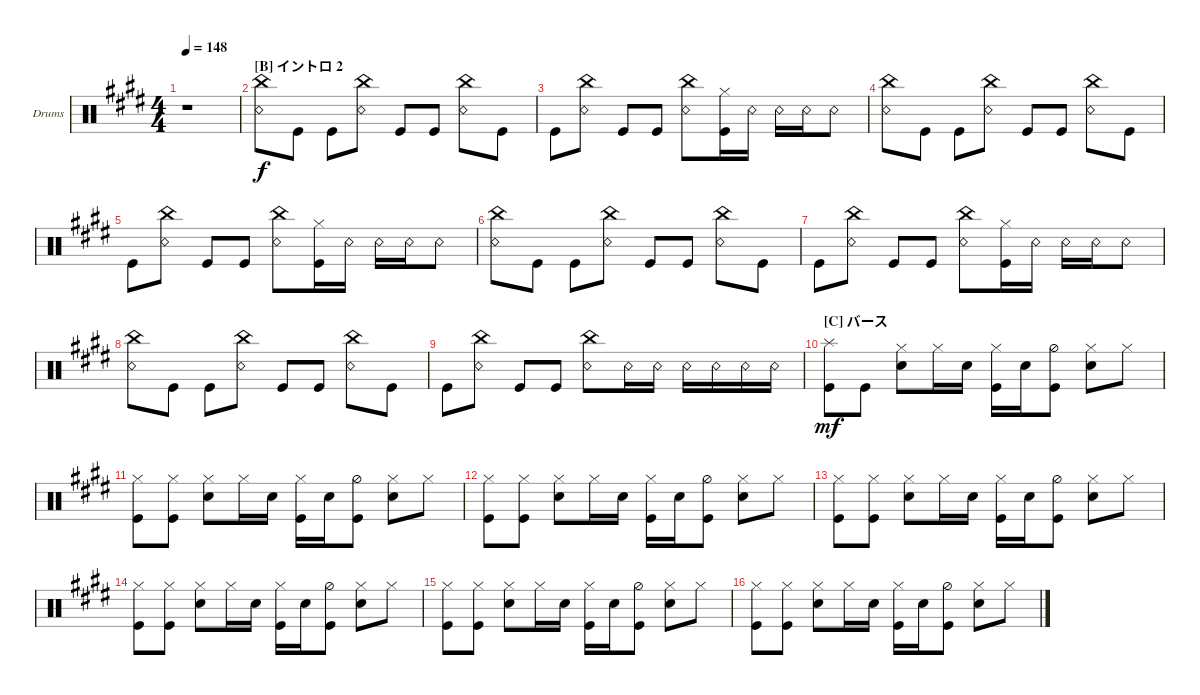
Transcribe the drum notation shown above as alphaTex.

\bracketExtendMode groupsimilarinstruments
\firstSystemTrackNameOrientation horizontal
\otherSystemsTrackNameOrientation horizontal
\track ("Ichigo" "Drums") {instrument percussion}
\staff {score}
\articulation defaults
\ts (4 4)
\tempo 148
\clef neutral
\ks e
r.1{dy f} |
\section ("B" "イントロ 2")
("China (hit)" "Snare (rim shot)").8 "Kick (hit)".8 "Kick (hit)".8 ("Snare (rim shot)" "China (hit)").8 "Kick (hit)".8 "Kick (hit)".8 ("Snare (rim shot)" "China (hit)").8 "Kick (hit)".8 |
"Kick (hit)".8 ("Snare (rim shot)" "China (hit)").8 "Kick (hit)".8 "Kick (hit)".8 ("Snare (rim shot)" "China (hit)").8 ("Kick (hit)" "Hi-Hat (closed)").16 "Snare (rim shot)".16 "Snare (rim shot)".16 "Snare (rim shot)".16 "Snare (rim shot)".8 |
("China (hit)" "Snare (rim shot)").8 "Kick (hit)".8 "Kick (hit)".8 ("Snare (rim shot)" "China (hit)").8 "Kick (hit)".8 "Kick (hit)".8 ("Snare (rim shot)" "China (hit)").8 "Kick (hit)".8 |
"Kick (hit)".8 ("Snare (rim shot)" "China (hit)").8 "Kick (hit)".8 "Kick (hit)".8 ("Snare (rim shot)" "China (hit)").8 ("Kick (hit)" "Hi-Hat (closed)").16 "Snare (rim shot)".16 "Snare (rim shot)".16 "Snare (rim shot)".16 "Snare (rim shot)".8 |
("China (hit)" "Snare (rim shot)").8 "Kick (hit)".8 "Kick (hit)".8 ("Snare (rim shot)" "China (hit)").8 "Kick (hit)".8 "Kick (hit)".8 ("Snare (rim shot)" "China (hit)").8 "Kick (hit)".8 |
"Kick (hit)".8 ("Snare (rim shot)" "China (hit)").8 "Kick (hit)".8 "Kick (hit)".8 ("Snare (rim shot)" "China (hit)").8 ("Kick (hit)" "Hi-Hat (closed)").16 "Snare (rim shot)".16 "Snare (rim shot)".16 "Snare (rim shot)".16 "Snare (rim shot)".8 |
("China (hit)" "Snare (rim shot)").8 "Kick (hit)".8 "Kick (hit)".8 ("Snare (rim shot)" "China (hit)").8 "Kick (hit)".8 "Kick (hit)".8 ("Snare (rim shot)" "China (hit)").8 "Kick (hit)".8 |
"Kick (hit)".8 ("Snare (rim shot)" "China (hit)").8 "Kick (hit)".8 "Kick (hit)".8 ("Snare (rim shot)" "China (hit)").8 "Snare (rim shot)".16 "Snare (rim shot)".16 "Snare (rim shot)".16 "Snare (rim shot)".16 "Snare (rim shot)".16 "Snare (rim shot)".16 |
\section ("C" "バース")
("Splash (hit)" "Kick (hit)").8{dy mf} "Kick (hit)".8 ("Snare (hit) 2" "Hi-Hat (closed)").8 "Hi-Hat (closed)".16 "Snare (hit) 2".16 ("Hi-Hat (closed)" "Kick (hit)").16 "Snare (hit) 2".16 ("Kick (hit)" "Hi-Hat (half)").8 ("Hi-Hat (closed)" "Snare (hit) 2").8 "Hi-Hat (closed)".8 |
("Kick (hit)" "Hi-Hat (closed)").8 ("Kick (hit)" "Hi-Hat (closed)").8 ("Snare (hit) 2" "Hi-Hat (closed)").8 "Hi-Hat (closed)".16 "Snare (hit) 2".16 ("Hi-Hat (closed)" "Kick (hit)").16 "Snare (hit) 2".16 ("Kick (hit)" "Hi-Hat (half)").8 ("Hi-Hat (closed)" "Snare (hit) 2").8 "Hi-Hat (closed)".8 |
("Kick (hit)" "Hi-Hat (closed)").8 ("Kick (hit)" "Hi-Hat (closed)").8 ("Snare (hit) 2" "Hi-Hat (closed)").8 "Hi-Hat (closed)".16 "Snare (hit) 2".16 ("Hi-Hat (closed)" "Kick (hit)").16 "Snare (hit) 2".16 ("Kick (hit)" "Hi-Hat (half)").8 ("Hi-Hat (closed)" "Snare (hit) 2").8 "Hi-Hat (closed)".8 |
("Kick (hit)" "Hi-Hat (closed)").8 ("Kick (hit)" "Hi-Hat (closed)").8 ("Snare (hit) 2" "Hi-Hat (closed)").8 "Hi-Hat (closed)".16 "Snare (hit) 2".16 ("Hi-Hat (closed)" "Kick (hit)").16 "Snare (hit) 2".16 ("Kick (hit)" "Hi-Hat (half)").8 ("Hi-Hat (closed)" "Snare (hit) 2").8 "Hi-Hat (closed)".8 |
("Kick (hit)" "Hi-Hat (closed)").8 ("Kick (hit)" "Hi-Hat (closed)").8 ("Snare (hit) 2" "Hi-Hat (closed)").8 "Hi-Hat (closed)".16 "Snare (hit) 2".16 ("Hi-Hat (closed)" "Kick (hit)").16 "Snare (hit) 2".16 ("Kick (hit)" "Hi-Hat (half)").8 ("Hi-Hat (closed)" "Snare (hit) 2").8 "Hi-Hat (closed)".8 |
("Kick (hit)" "Hi-Hat (closed)").8 ("Kick (hit)" "Hi-Hat (closed)").8 ("Snare (hit) 2" "Hi-Hat (closed)").8 "Hi-Hat (closed)".16 "Snare (hit) 2".16 ("Hi-Hat (closed)" "Kick (hit)").16 "Snare (hit) 2".16 ("Kick (hit)" "Hi-Hat (half)").8 ("Hi-Hat (closed)" "Snare (hit) 2").8 "Hi-Hat (closed)".8 |
("Kick (hit)" "Hi-Hat (closed)").8 ("Kick (hit)" "Hi-Hat (closed)").8 ("Snare (hit) 2" "Hi-Hat (closed)").8 "Hi-Hat (closed)".16 "Snare (hit) 2".16 ("Hi-Hat (closed)" "Kick (hit)").16 "Snare (hit) 2".16 ("Kick (hit)" "Hi-Hat (half)").8 ("Hi-Hat (closed)" "Snare (hit) 2").8 "Hi-Hat (closed)".8
